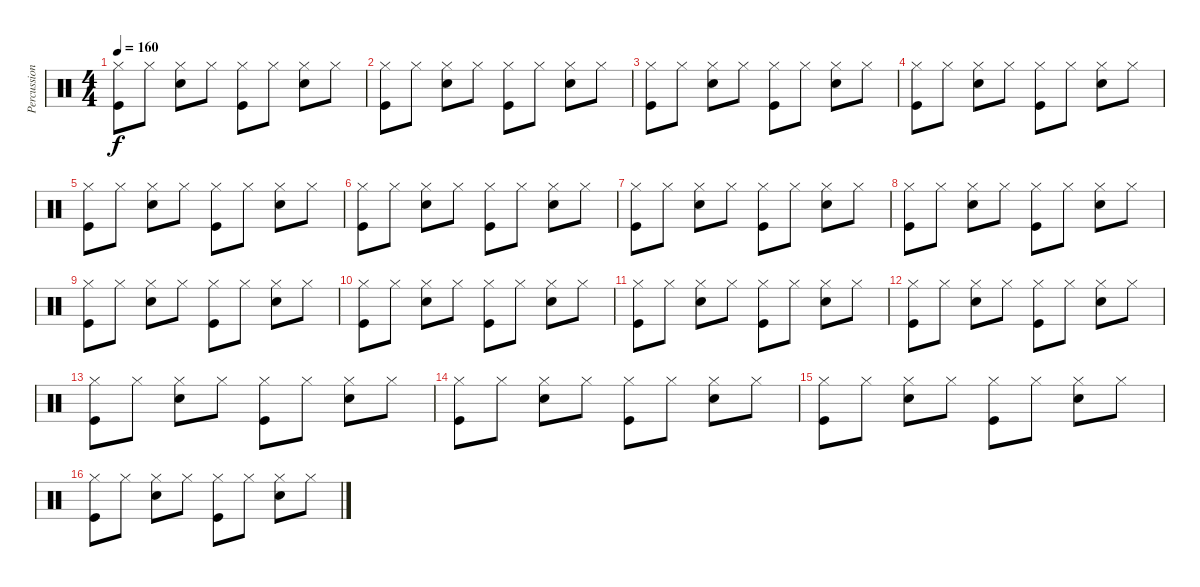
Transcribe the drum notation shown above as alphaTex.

\track ("Percussions" "Percussion") {instrument percussion}
\staff {score}
\articulation defaults
\ts (4 4)
\tempo 160
\clef neutral
\ks c
("Hi-Hat (closed)" "Kick (hit)").8{dy f} "Hi-Hat (closed)".8 ("Hi-Hat (closed)" "Snare (hit) 2").8 "Hi-Hat (closed)".8 ("Hi-Hat (closed)" "Kick (hit)").8 "Hi-Hat (closed)".8 ("Hi-Hat (closed)" "Snare (hit) 2").8 "Hi-Hat (closed)".8 |
("Hi-Hat (closed)" "Kick (hit)").8 "Hi-Hat (closed)".8 ("Hi-Hat (closed)" "Snare (hit) 2").8 "Hi-Hat (closed)".8 ("Hi-Hat (closed)" "Kick (hit)").8 "Hi-Hat (closed)".8 ("Hi-Hat (closed)" "Snare (hit) 2").8 "Hi-Hat (closed)".8 |
("Hi-Hat (closed)" "Kick (hit)").8 "Hi-Hat (closed)".8 ("Hi-Hat (closed)" "Snare (hit) 2").8 "Hi-Hat (closed)".8 ("Hi-Hat (closed)" "Kick (hit)").8 "Hi-Hat (closed)".8 ("Hi-Hat (closed)" "Snare (hit) 2").8 "Hi-Hat (closed)".8 |
("Hi-Hat (closed)" "Kick (hit)").8 "Hi-Hat (closed)".8 ("Hi-Hat (closed)" "Snare (hit) 2").8 "Hi-Hat (closed)".8 ("Hi-Hat (closed)" "Kick (hit)").8 "Hi-Hat (closed)".8 ("Hi-Hat (closed)" "Snare (hit) 2").8 "Hi-Hat (closed)".8 |
("Hi-Hat (closed)" "Kick (hit)").8 "Hi-Hat (closed)".8 ("Hi-Hat (closed)" "Snare (hit) 2").8 "Hi-Hat (closed)".8 ("Hi-Hat (closed)" "Kick (hit)").8 "Hi-Hat (closed)".8 ("Hi-Hat (closed)" "Snare (hit) 2").8 "Hi-Hat (closed)".8 |
("Hi-Hat (closed)" "Kick (hit)").8 "Hi-Hat (closed)".8 ("Hi-Hat (closed)" "Snare (hit) 2").8 "Hi-Hat (closed)".8 ("Hi-Hat (closed)" "Kick (hit)").8 "Hi-Hat (closed)".8 ("Hi-Hat (closed)" "Snare (hit) 2").8 "Hi-Hat (closed)".8 |
("Hi-Hat (closed)" "Kick (hit)").8 "Hi-Hat (closed)".8 ("Hi-Hat (closed)" "Snare (hit) 2").8 "Hi-Hat (closed)".8 ("Hi-Hat (closed)" "Kick (hit)").8 "Hi-Hat (closed)".8 ("Hi-Hat (closed)" "Snare (hit) 2").8 "Hi-Hat (closed)".8 |
("Hi-Hat (closed)" "Kick (hit)").8 "Hi-Hat (closed)".8 ("Hi-Hat (closed)" "Snare (hit) 2").8 "Hi-Hat (closed)".8 ("Hi-Hat (closed)" "Kick (hit)").8 "Hi-Hat (closed)".8 ("Hi-Hat (closed)" "Snare (hit) 2").8 "Hi-Hat (closed)".8 |
("Hi-Hat (closed)" "Kick (hit)").8 "Hi-Hat (closed)".8 ("Hi-Hat (closed)" "Snare (hit) 2").8 "Hi-Hat (closed)".8 ("Hi-Hat (closed)" "Kick (hit)").8 "Hi-Hat (closed)".8 ("Hi-Hat (closed)" "Snare (hit) 2").8 "Hi-Hat (closed)".8 |
("Hi-Hat (closed)" "Kick (hit)").8 "Hi-Hat (closed)".8 ("Hi-Hat (closed)" "Snare (hit) 2").8 "Hi-Hat (closed)".8 ("Hi-Hat (closed)" "Kick (hit)").8 "Hi-Hat (closed)".8 ("Hi-Hat (closed)" "Snare (hit) 2").8 "Hi-Hat (closed)".8 |
("Hi-Hat (closed)" "Kick (hit)").8 "Hi-Hat (closed)".8 ("Hi-Hat (closed)" "Snare (hit) 2").8 "Hi-Hat (closed)".8 ("Hi-Hat (closed)" "Kick (hit)").8 "Hi-Hat (closed)".8 ("Hi-Hat (closed)" "Snare (hit) 2").8 "Hi-Hat (closed)".8 |
("Hi-Hat (closed)" "Kick (hit)").8 "Hi-Hat (closed)".8 ("Hi-Hat (closed)" "Snare (hit) 2").8 "Hi-Hat (closed)".8 ("Hi-Hat (closed)" "Kick (hit)").8 "Hi-Hat (closed)".8 ("Hi-Hat (closed)" "Snare (hit) 2").8 "Hi-Hat (closed)".8 |
("Hi-Hat (closed)" "Kick (hit)").8 "Hi-Hat (closed)".8 ("Hi-Hat (closed)" "Snare (hit) 2").8 "Hi-Hat (closed)".8 ("Hi-Hat (closed)" "Kick (hit)").8 "Hi-Hat (closed)".8 ("Hi-Hat (closed)" "Snare (hit) 2").8 "Hi-Hat (closed)".8 |
("Hi-Hat (closed)" "Kick (hit)").8 "Hi-Hat (closed)".8 ("Hi-Hat (closed)" "Snare (hit) 2").8 "Hi-Hat (closed)".8 ("Hi-Hat (closed)" "Kick (hit)").8 "Hi-Hat (closed)".8 ("Hi-Hat (closed)" "Snare (hit) 2").8 "Hi-Hat (closed)".8 |
("Hi-Hat (closed)" "Kick (hit)").8 "Hi-Hat (closed)".8 ("Hi-Hat (closed)" "Snare (hit) 2").8 "Hi-Hat (closed)".8 ("Hi-Hat (closed)" "Kick (hit)").8 "Hi-Hat (closed)".8 ("Hi-Hat (closed)" "Snare (hit) 2").8 "Hi-Hat (closed)".8 |
("Hi-Hat (closed)" "Kick (hit)").8 "Hi-Hat (closed)".8 ("Hi-Hat (closed)" "Snare (hit) 2").8 "Hi-Hat (closed)".8 ("Hi-Hat (closed)" "Kick (hit)").8 "Hi-Hat (closed)".8 ("Hi-Hat (closed)" "Snare (hit) 2").8 "Hi-Hat (closed)".8
